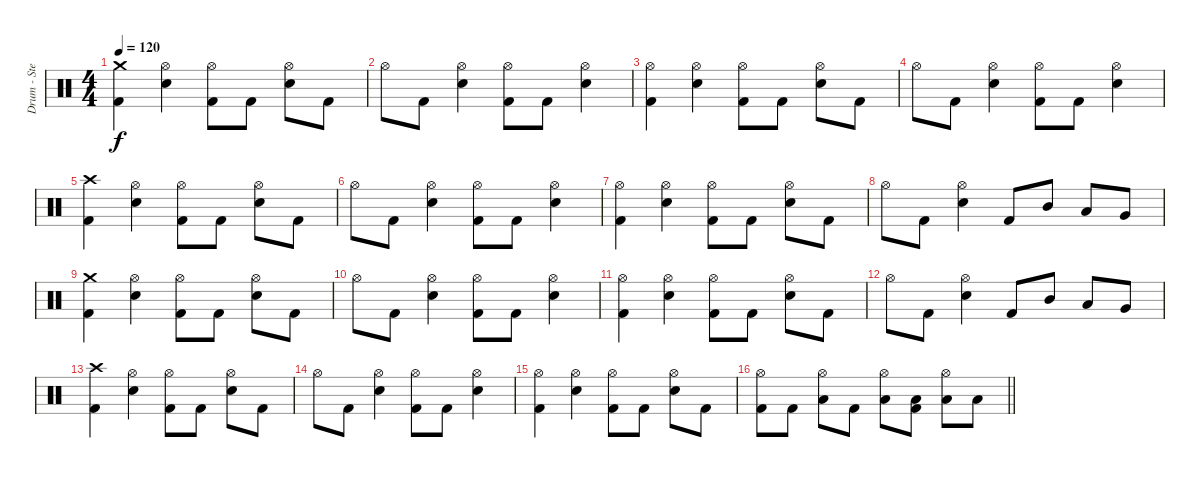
\track ("Drum - Stevie Morley Item" "Drum - Ste") {instrument percussion}
\staff {score}
\articulation defaults
\ts (4 4)
\tempo 120
\clef neutral
\ks c
("Crash medium (hit)" "Kick (hit) 2").4{dy f} ("Hi-Hat (open)" "Snare (hit) 2").4 ("Hi-Hat (open)" "Kick (hit) 2").8 "Kick (hit) 2".8 ("Hi-Hat (open)" "Snare (hit) 2").8 "Kick (hit) 2".8 |
"Hi-Hat (open)".8 "Kick (hit) 2".8 ("Hi-Hat (open)" "Snare (hit) 2").4 ("Hi-Hat (open)" "Kick (hit) 2").8 "Kick (hit) 2".8 ("Hi-Hat (open)" "Snare (hit) 2").4 |
("Hi-Hat (open)" "Kick (hit) 2").4 ("Hi-Hat (open)" "Snare (hit) 2").4 ("Hi-Hat (open)" "Kick (hit) 2").8 "Kick (hit) 2".8 ("Hi-Hat (open)" "Snare (hit) 2").8 "Kick (hit) 2".8 |
"Hi-Hat (open)".8 "Kick (hit) 2".8 ("Hi-Hat (open)" "Snare (hit) 2").4 ("Hi-Hat (open)" "Kick (hit) 2").8 "Kick (hit) 2".8 ("Hi-Hat (open)" "Snare (hit) 2").4 |
("Crash high (hit)" "Kick (hit) 2").4 ("Hi-Hat (open)" "Snare (hit) 2").4 ("Hi-Hat (open)" "Kick (hit) 2").8 "Kick (hit) 2".8 ("Hi-Hat (open)" "Snare (hit) 2").8 "Kick (hit) 2".8 |
"Hi-Hat (open)".8 "Kick (hit) 2".8 ("Hi-Hat (open)" "Snare (hit) 2").4 ("Hi-Hat (open)" "Kick (hit) 2").8 "Kick (hit) 2".8 ("Hi-Hat (open)" "Snare (hit) 2").4 |
("Hi-Hat (open)" "Kick (hit) 2").4 ("Hi-Hat (open)" "Snare (hit) 2").4 ("Hi-Hat (open)" "Kick (hit) 2").8 "Kick (hit) 2".8 ("Hi-Hat (open)" "Snare (hit) 2").8 "Kick (hit) 2".8 |
"Hi-Hat (open)".8 "Kick (hit) 2".8 ("Hi-Hat (open)" "Snare (hit) 2").4 "Kick (hit) 2".8 "Mid Tom (hit)".8 "Low Tom (hit)".8 "Very Low Tom (hit)".8 |
("Crash medium (hit)" "Kick (hit) 2").4 ("Hi-Hat (open)" "Snare (hit) 2").4 ("Hi-Hat (open)" "Kick (hit) 2").8 "Kick (hit) 2".8 ("Hi-Hat (open)" "Snare (hit) 2").8 "Kick (hit) 2".8 |
"Hi-Hat (open)".8 "Kick (hit) 2".8 ("Hi-Hat (open)" "Snare (hit) 2").4 ("Hi-Hat (open)" "Kick (hit) 2").8 "Kick (hit) 2".8 ("Hi-Hat (open)" "Snare (hit) 2").4 |
("Hi-Hat (open)" "Kick (hit) 2").4 ("Hi-Hat (open)" "Snare (hit) 2").4 ("Hi-Hat (open)" "Kick (hit) 2").8 "Kick (hit) 2".8 ("Hi-Hat (open)" "Snare (hit) 2").8 "Kick (hit) 2".8 |
"Hi-Hat (open)".8 "Kick (hit) 2".8 ("Hi-Hat (open)" "Snare (hit) 2").4 "Kick (hit) 2".8 "Mid Tom (hit)".8 "Low Tom (hit)".8 "Very Low Tom (hit)".8 |
("Crash high (hit)" "Kick (hit) 2").4 ("Hi-Hat (open)" "Snare (hit) 2").4 ("Hi-Hat (open)" "Kick (hit) 2").8 "Kick (hit) 2".8 ("Hi-Hat (open)" "Snare (hit) 2").8 "Kick (hit) 2".8 |
"Hi-Hat (open)".8 "Kick (hit) 2".8 ("Hi-Hat (open)" "Snare (hit) 2").4 ("Hi-Hat (open)" "Kick (hit) 2").8 "Kick (hit) 2".8 ("Hi-Hat (open)" "Snare (hit) 2").4 |
("Hi-Hat (open)" "Kick (hit) 2").4 ("Hi-Hat (open)" "Snare (hit) 2").4 ("Hi-Hat (open)" "Kick (hit) 2").8 "Kick (hit) 2".8 ("Hi-Hat (open)" "Snare (hit) 2").8 "Kick (hit) 2".8 |
\barLineRight lightlight
("Hi-Hat (open)" "Kick (hit) 2").8 "Kick (hit) 2".8 ("Hi-Hat (open)" "Low Floor Tom (hit)").8 "Kick (hit) 2".8 ("Hi-Hat (open)" "Low Floor Tom (hit)").8 ("Kick (hit) 2" "Low Floor Tom (hit)").8 ("Hi-Hat (open)" "Low Floor Tom (hit)").8 "Low Floor Tom (hit)".8
